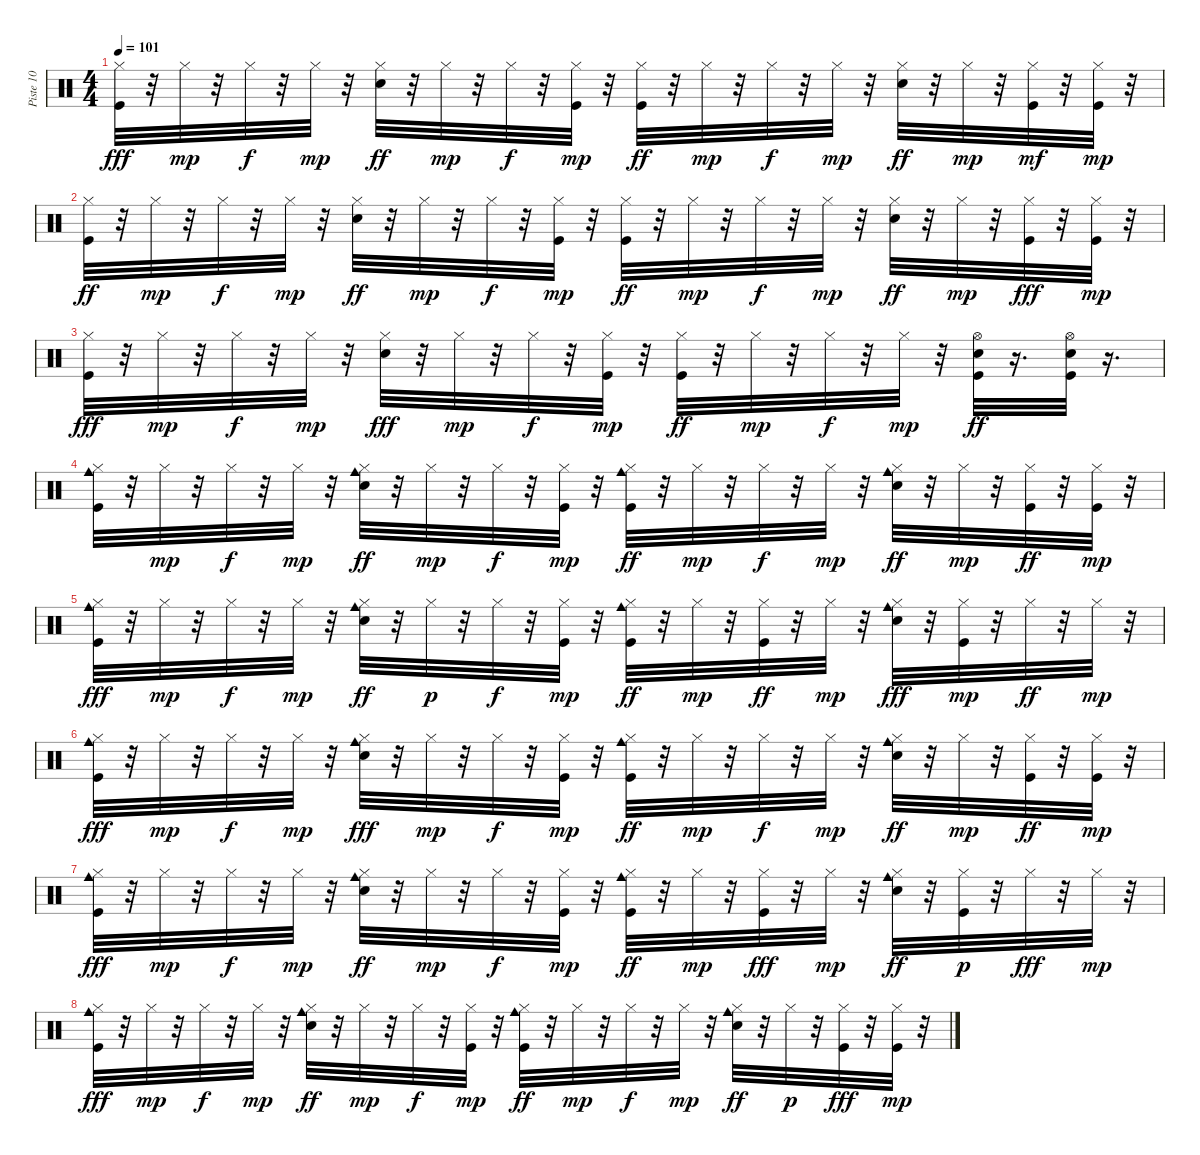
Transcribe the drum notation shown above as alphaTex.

\track ("Piste 10" "Piste 10") {instrument percussion}
\staff {score}
\articulation defaults
\ts (4 4)
\tempo 101
\clef neutral
\ks c
("Kick (hit)" "Hi-Hat (closed)").32{dy fff} r.32 "Hi-Hat (closed)".32{dy mp} r.32 "Hi-Hat (closed)".32{dy f} r.32 "Hi-Hat (closed)".32{dy mp} r.32 ("Electric Snare (hit)" "Hi-Hat (closed)").32{dy ff} r.32 "Hi-Hat (closed)".32{dy mp} r.32 "Hi-Hat (closed)".32{dy f} r.32 ("Kick (hit)" "Hi-Hat (closed)").32{dy mp} r.32 ("Kick (hit)" "Hi-Hat (closed)").32{dy ff} r.32 "Hi-Hat (closed)".32{dy mp} r.32 "Hi-Hat (closed)".32{dy f} r.32 "Hi-Hat (closed)".32{dy mp} r.32 ("Electric Snare (hit)" "Hi-Hat (closed)").32{dy ff} r.32 "Hi-Hat (closed)".32{dy mp} r.32 ("Kick (hit)" "Hi-Hat (closed)").32{dy mf} r.32 ("Kick (hit)" "Hi-Hat (closed)").32{dy mp} r.32 |
("Kick (hit)" "Hi-Hat (closed)").32{dy ff} r.32 "Hi-Hat (closed)".32{dy mp} r.32 "Hi-Hat (closed)".32{dy f} r.32 "Hi-Hat (closed)".32{dy mp} r.32 ("Electric Snare (hit)" "Hi-Hat (closed)").32{dy ff} r.32 "Hi-Hat (closed)".32{dy mp} r.32 "Hi-Hat (closed)".32{dy f} r.32 ("Kick (hit)" "Hi-Hat (closed)").32{dy mp} r.32 ("Kick (hit)" "Hi-Hat (closed)").32{dy ff} r.32 "Hi-Hat (closed)".32{dy mp} r.32 "Hi-Hat (closed)".32{dy f} r.32 "Hi-Hat (closed)".32{dy mp} r.32 ("Electric Snare (hit)" "Hi-Hat (closed)").32{dy ff} r.32 "Hi-Hat (closed)".32{dy mp} r.32 ("Kick (hit)" "Hi-Hat (closed)").32{dy fff} r.32 ("Kick (hit)" "Hi-Hat (closed)").32{dy mp} r.32 |
("Kick (hit)" "Hi-Hat (closed)").32{dy fff} r.32 "Hi-Hat (closed)".32{dy mp} r.32 "Hi-Hat (closed)".32{dy f} r.32 "Hi-Hat (closed)".32{dy mp} r.32 ("Electric Snare (hit)" "Hi-Hat (closed)").32{dy fff} r.32 "Hi-Hat (closed)".32{dy mp} r.32 "Hi-Hat (closed)".32{dy f} r.32 ("Kick (hit)" "Hi-Hat (closed)").32{dy mp} r.32 ("Kick (hit)" "Hi-Hat (closed)").32{dy ff} r.32 "Hi-Hat (closed)".32{dy mp} r.32 "Hi-Hat (closed)".32{dy f} r.32 "Hi-Hat (closed)".32{dy mp} r.32 ("Kick (hit)" "Electric Snare (hit)" "Hi-Hat (open)").32{dy ff} r.16{d} ("Kick (hit)" "Electric Snare (hit)" "Hi-Hat (open)").32 r.16{d} |
("Kick (hit)" "Hi-Hat (closed)" "Cowbell medium (hit)").32 r.32 "Hi-Hat (closed)".32{dy mp} r.32 "Hi-Hat (closed)".32{dy f} r.32 "Hi-Hat (closed)".32{dy mp} r.32 ("Electric Snare (hit)" "Hi-Hat (closed)" "Cowbell medium (hit)").32{dy ff} r.32 "Hi-Hat (closed)".32{dy mp} r.32 "Hi-Hat (closed)".32{dy f} r.32 ("Kick (hit)" "Hi-Hat (closed)").32{dy mp} r.32 ("Kick (hit)" "Hi-Hat (closed)" "Cowbell medium (hit)").32{dy ff} r.32 "Hi-Hat (closed)".32{dy mp} r.32 "Hi-Hat (closed)".32{dy f} r.32 "Hi-Hat (closed)".32{dy mp} r.32 ("Electric Snare (hit)" "Hi-Hat (closed)" "Cowbell medium (hit)").32{dy ff} r.32 "Hi-Hat (closed)".32{dy mp} r.32 ("Kick (hit)" "Hi-Hat (closed)").32{dy ff} r.32 ("Kick (hit)" "Hi-Hat (closed)").32{dy mp} r.32 |
("Kick (hit)" "Hi-Hat (closed)" "Cowbell medium (hit)").32{dy fff} r.32 "Hi-Hat (closed)".32{dy mp} r.32 "Hi-Hat (closed)".32{dy f} r.32 "Hi-Hat (closed)".32{dy mp} r.32 ("Electric Snare (hit)" "Hi-Hat (closed)" "Cowbell medium (hit)").32{dy ff} r.32 "Hi-Hat (closed)".32{dy p} r.32 "Hi-Hat (closed)".32{dy f} r.32 ("Kick (hit)" "Hi-Hat (closed)").32{dy mp} r.32 ("Kick (hit)" "Hi-Hat (closed)" "Cowbell medium (hit)").32{dy ff} r.32 "Hi-Hat (closed)".32{dy mp} r.32 ("Kick (hit)" "Hi-Hat (closed)").32{dy ff} r.32 "Hi-Hat (closed)".32{dy mp} r.32 ("Electric Snare (hit)" "Hi-Hat (closed)" "Cowbell medium (hit)").32{dy fff} r.32 ("Kick (hit)" "Hi-Hat (closed)").32{dy mp} r.32 "Hi-Hat (closed)".32{dy ff} r.32 "Hi-Hat (closed)".32{dy mp} r.32 |
("Kick (hit)" "Hi-Hat (closed)" "Cowbell medium (hit)").32{dy fff} r.32 "Hi-Hat (closed)".32{dy mp} r.32 "Hi-Hat (closed)".32{dy f} r.32 "Hi-Hat (closed)".32{dy mp} r.32 ("Electric Snare (hit)" "Hi-Hat (closed)" "Cowbell medium (hit)").32{dy fff} r.32 "Hi-Hat (closed)".32{dy mp} r.32 "Hi-Hat (closed)".32{dy f} r.32 ("Kick (hit)" "Hi-Hat (closed)").32{dy mp} r.32 ("Kick (hit)" "Hi-Hat (closed)" "Cowbell medium (hit)").32{dy ff} r.32 "Hi-Hat (closed)".32{dy mp} r.32 "Hi-Hat (closed)".32{dy f} r.32 "Hi-Hat (closed)".32{dy mp} r.32 ("Electric Snare (hit)" "Hi-Hat (closed)" "Cowbell medium (hit)").32{dy ff} r.32 "Hi-Hat (closed)".32{dy mp} r.32 ("Kick (hit)" "Hi-Hat (closed)").32{dy ff} r.32 ("Kick (hit)" "Hi-Hat (closed)").32{dy mp} r.32 |
("Kick (hit)" "Hi-Hat (closed)" "Cowbell medium (hit)").32{dy fff} r.32 "Hi-Hat (closed)".32{dy mp} r.32 "Hi-Hat (closed)".32{dy f} r.32 "Hi-Hat (closed)".32{dy mp} r.32 ("Electric Snare (hit)" "Hi-Hat (closed)" "Cowbell medium (hit)").32{dy ff} r.32 "Hi-Hat (closed)".32{dy mp} r.32 "Hi-Hat (closed)".32{dy f} r.32 ("Kick (hit)" "Hi-Hat (closed)").32{dy mp} r.32 ("Kick (hit)" "Hi-Hat (closed)" "Cowbell medium (hit)").32{dy ff} r.32 "Hi-Hat (closed)".32{dy mp} r.32 ("Kick (hit)" "Hi-Hat (closed)").32{dy fff} r.32 "Hi-Hat (closed)".32{dy mp} r.32 ("Electric Snare (hit)" "Hi-Hat (closed)" "Cowbell medium (hit)").32{dy ff} r.32 ("Kick (hit)" "Hi-Hat (closed)").32{dy p} r.32 "Hi-Hat (closed)".32{dy fff} r.32 "Hi-Hat (closed)".32{dy mp} r.32 |
("Kick (hit)" "Hi-Hat (closed)" "Cowbell medium (hit)").32{dy fff} r.32 "Hi-Hat (closed)".32{dy mp} r.32 "Hi-Hat (closed)".32{dy f} r.32 "Hi-Hat (closed)".32{dy mp} r.32 ("Electric Snare (hit)" "Hi-Hat (closed)" "Cowbell medium (hit)").32{dy ff} r.32 "Hi-Hat (closed)".32{dy mp} r.32 "Hi-Hat (closed)".32{dy f} r.32 ("Kick (hit)" "Hi-Hat (closed)").32{dy mp} r.32 ("Kick (hit)" "Hi-Hat (closed)" "Cowbell medium (hit)").32{dy ff} r.32 "Hi-Hat (closed)".32{dy mp} r.32 "Hi-Hat (closed)".32{dy f} r.32 "Hi-Hat (closed)".32{dy mp} r.32 ("Electric Snare (hit)" "Hi-Hat (closed)" "Cowbell medium (hit)").32{dy ff} r.32 "Hi-Hat (closed)".32{dy p} r.32 ("Kick (hit)" "Hi-Hat (closed)").32{dy fff} r.32 ("Kick (hit)" "Hi-Hat (closed)").32{dy mp} r.32
